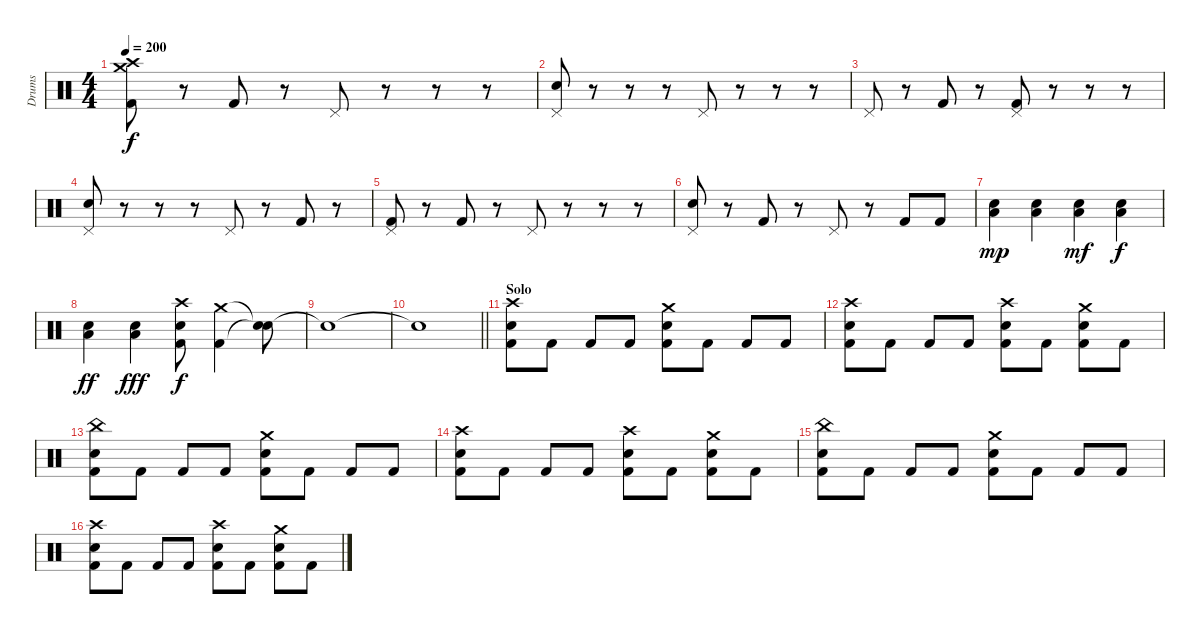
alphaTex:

\track ("Drums" "Drums") {instrument percussion}
\staff {score}
\articulation defaults
\ts (4 4)
\tempo 200
\clef neutral
\ks c
("Crash medium (hit)" "Crash high (hit)" "Kick (hit) 2").8{dy f} r.8 "Kick (hit) 2".8 r.8 "Pedal Hi-Hat (hit)".8 r.8 r.8 r.8 |
("Pedal Hi-Hat (hit)" "Electric Snare (hit)").8 r.8 r.8 r.8 "Pedal Hi-Hat (hit)".8 r.8 r.8 r.8 |
"Pedal Hi-Hat (hit)".8 r.8 "Kick (hit) 2".8 r.8 ("Pedal Hi-Hat (hit)" "Kick (hit) 2").8 r.8 r.8 r.8 |
("Pedal Hi-Hat (hit)" "Electric Snare (hit)").8 r.8 r.8 r.8 "Pedal Hi-Hat (hit)".8 r.8 "Kick (hit) 2".8 r.8 |
("Pedal Hi-Hat (hit)" "Kick (hit) 2").8 r.8 "Kick (hit) 2".8 r.8 "Pedal Hi-Hat (hit)".8 r.8 r.8 r.8 |
("Pedal Hi-Hat (hit)" "Electric Snare (hit)").8 r.8 "Kick (hit) 2".8 r.8 "Pedal Hi-Hat (hit)".8 r.8 "Kick (hit) 2".8 "Kick (hit) 2".8 |
("Low Floor Tom (hit)" "Electric Snare (hit)").4{dy mp} ("Low Floor Tom (hit)" "Electric Snare (hit)").4 ("Low Floor Tom (hit)" "Electric Snare (hit)").4{dy mf} ("Low Floor Tom (hit)" "Electric Snare (hit)").4{dy f} |
("Low Floor Tom (hit)" "Electric Snare (hit)").4{dy ff} ("Low Floor Tom (hit)" "Electric Snare (hit)").4{dy fff} ("Crash high (hit)" "Electric Snare (hit)" "Kick (hit) 2").8{dy f} ("Crash medium (hit)" "Kick (hit) 2").4 ("Snare (hit)"{t} "Snare (hit)"{t}).8 |
"Snare (hit)"{t}.1 |
\barLineRight lightlight "Snare (hit)"{t}.1
|
\section ("" "Solo")
("Crash high (hit)" "Electric Snare (hit)" "Kick (hit) 2").8 "Kick (hit) 2".8 "Kick (hit) 2".8 "Kick (hit) 2".8 ("Crash medium (hit)" "Electric Snare (hit)" "Kick (hit) 2").8 "Kick (hit) 2".8 "Kick (hit) 2".8 "Kick (hit) 2".8 |
("Crash high (hit)" "Electric Snare (hit)" "Kick (hit) 2").8 "Kick (hit) 2".8 "Kick (hit) 2".8 "Kick (hit) 2".8 ("Crash high (hit)" "Electric Snare (hit)" "Kick (hit) 2").8 "Kick (hit) 2".8 ("Crash medium (hit)" "Electric Snare (hit)" "Kick (hit) 2").8 "Kick (hit) 2".8 |
("China (hit)" "Electric Snare (hit)" "Kick (hit) 2").8 "Kick (hit) 2".8 "Kick (hit) 2".8 "Kick (hit) 2".8 ("Crash medium (hit)" "Electric Snare (hit)" "Kick (hit) 2").8 "Kick (hit) 2".8 "Kick (hit) 2".8 "Kick (hit) 2".8 |
("Crash high (hit)" "Electric Snare (hit)" "Kick (hit) 2").8 "Kick (hit) 2".8 "Kick (hit) 2".8 "Kick (hit) 2".8 ("Crash high (hit)" "Electric Snare (hit)" "Kick (hit) 2").8 "Kick (hit) 2".8 ("Crash medium (hit)" "Electric Snare (hit)" "Kick (hit) 2").8 "Kick (hit) 2".8 |
("China (hit)" "Electric Snare (hit)" "Kick (hit) 2").8 "Kick (hit) 2".8 "Kick (hit) 2".8 "Kick (hit) 2".8 ("Crash medium (hit)" "Electric Snare (hit)" "Kick (hit) 2").8 "Kick (hit) 2".8 "Kick (hit) 2".8 "Kick (hit) 2".8 |
("Crash high (hit)" "Electric Snare (hit)" "Kick (hit) 2").8 "Kick (hit) 2".8 "Kick (hit) 2".8 "Kick (hit) 2".8 ("Crash high (hit)" "Electric Snare (hit)" "Kick (hit) 2").8 "Kick (hit) 2".8 ("Crash medium (hit)" "Electric Snare (hit)" "Kick (hit) 2").8 "Kick (hit) 2".8
